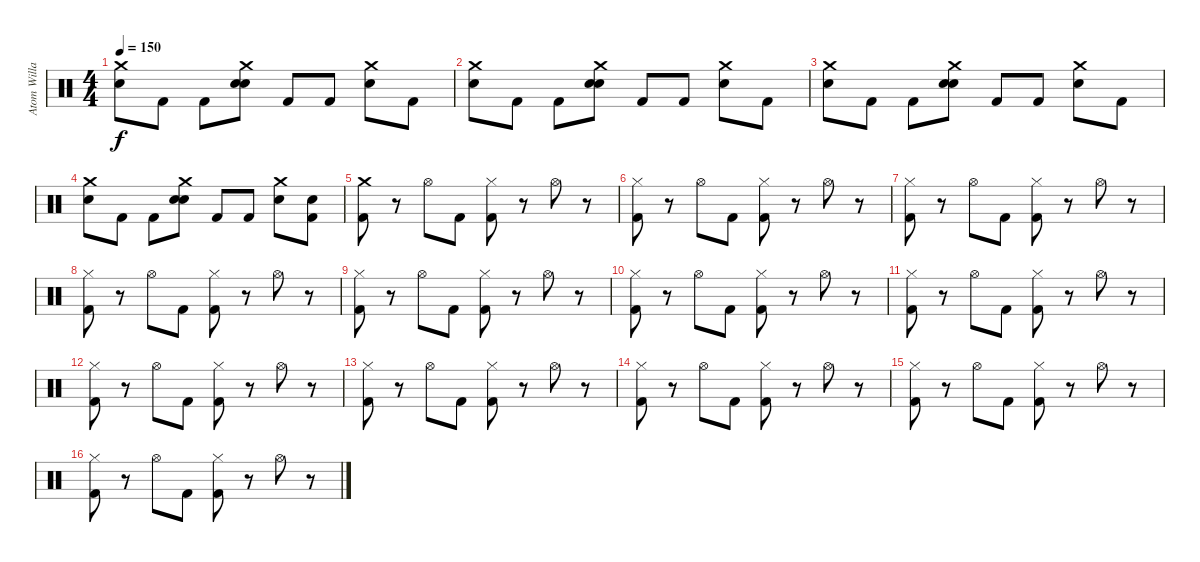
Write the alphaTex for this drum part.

\track ("Atom Willard Drums" "Atom Willa") {instrument percussion}
\staff {score}
\articulation defaults
\ts (4 4)
\tempo 150
\clef neutral
\ks c
("Crash medium (hit)" "Electric Snare (hit)").8{dy f} "Kick (hit) 2".8 "Kick (hit) 2".8 ("Crash medium (hit)" "Electric Snare (hit)" "Snare (hit)").8 "Kick (hit) 2".8 "Kick (hit) 2".8 ("Crash medium (hit)" "Electric Snare (hit)").8 "Kick (hit) 2".8 |
("Crash medium (hit)" "Electric Snare (hit)").8 "Kick (hit) 2".8 "Kick (hit) 2".8 ("Crash medium (hit)" "Electric Snare (hit)" "Snare (hit)").8 "Kick (hit) 2".8 "Kick (hit) 2".8 ("Crash medium (hit)" "Electric Snare (hit)").8 "Kick (hit) 2".8 |
("Crash medium (hit)" "Electric Snare (hit)").8 "Kick (hit) 2".8 "Kick (hit) 2".8 ("Crash medium (hit)" "Electric Snare (hit)" "Snare (hit)").8 "Kick (hit) 2".8 "Kick (hit) 2".8 ("Crash medium (hit)" "Electric Snare (hit)").8 "Kick (hit) 2".8 |
("Crash medium (hit)" "Electric Snare (hit)").8 "Kick (hit) 2".8 "Kick (hit) 2".8 ("Crash medium (hit)" "Electric Snare (hit)" "Snare (hit)").8 "Kick (hit) 2".8 "Kick (hit) 2".8 ("Crash medium (hit)" "Electric Snare (hit)").8 ("Electric Snare (hit)" "Kick (hit) 2").8 |
("Crash medium (hit)" "Kick (hit) 2").8 r.8 "Hi-Hat (open)".8 "Kick (hit) 2".8 ("Hi-Hat (closed)" "Kick (hit) 2").8 r.8 "Hi-Hat (open)".8 r.8 |
("Hi-Hat (closed)" "Kick (hit) 2").8 r.8 "Hi-Hat (open)".8 "Kick (hit) 2".8 ("Hi-Hat (closed)" "Kick (hit) 2").8 r.8 "Hi-Hat (open)".8 r.8 |
("Hi-Hat (closed)" "Kick (hit) 2").8 r.8 "Hi-Hat (open)".8 "Kick (hit) 2".8 ("Hi-Hat (closed)" "Kick (hit) 2").8 r.8 "Hi-Hat (open)".8 r.8 |
("Hi-Hat (closed)" "Kick (hit) 2").8 r.8 "Hi-Hat (open)".8 "Kick (hit) 2".8 ("Hi-Hat (closed)" "Kick (hit) 2").8 r.8 "Hi-Hat (open)".8 r.8 |
("Hi-Hat (closed)" "Kick (hit) 2").8 r.8 "Hi-Hat (open)".8 "Kick (hit) 2".8 ("Hi-Hat (closed)" "Kick (hit) 2").8 r.8 "Hi-Hat (open)".8 r.8 |
("Hi-Hat (closed)" "Kick (hit) 2").8 r.8 "Hi-Hat (open)".8 "Kick (hit) 2".8 ("Hi-Hat (closed)" "Kick (hit) 2").8 r.8 "Hi-Hat (open)".8 r.8 |
("Hi-Hat (closed)" "Kick (hit) 2").8 r.8 "Hi-Hat (open)".8 "Kick (hit) 2".8 ("Hi-Hat (closed)" "Kick (hit) 2").8 r.8 "Hi-Hat (open)".8 r.8 |
("Hi-Hat (closed)" "Kick (hit) 2").8 r.8 "Hi-Hat (open)".8 "Kick (hit) 2".8 ("Hi-Hat (closed)" "Kick (hit) 2").8 r.8 "Hi-Hat (open)".8 r.8 |
("Hi-Hat (closed)" "Kick (hit) 2").8 r.8 "Hi-Hat (open)".8 "Kick (hit) 2".8 ("Hi-Hat (closed)" "Kick (hit) 2").8 r.8 "Hi-Hat (open)".8 r.8 |
("Hi-Hat (closed)" "Kick (hit) 2").8 r.8 "Hi-Hat (open)".8 "Kick (hit) 2".8 ("Hi-Hat (closed)" "Kick (hit) 2").8 r.8 "Hi-Hat (open)".8 r.8 |
("Hi-Hat (closed)" "Kick (hit) 2").8 r.8 "Hi-Hat (open)".8 "Kick (hit) 2".8 ("Hi-Hat (closed)" "Kick (hit) 2").8 r.8 "Hi-Hat (open)".8 r.8 |
("Hi-Hat (closed)" "Kick (hit) 2").8 r.8 "Hi-Hat (open)".8 "Kick (hit) 2".8 ("Hi-Hat (closed)" "Kick (hit) 2").8 r.8 "Hi-Hat (open)".8 r.8
